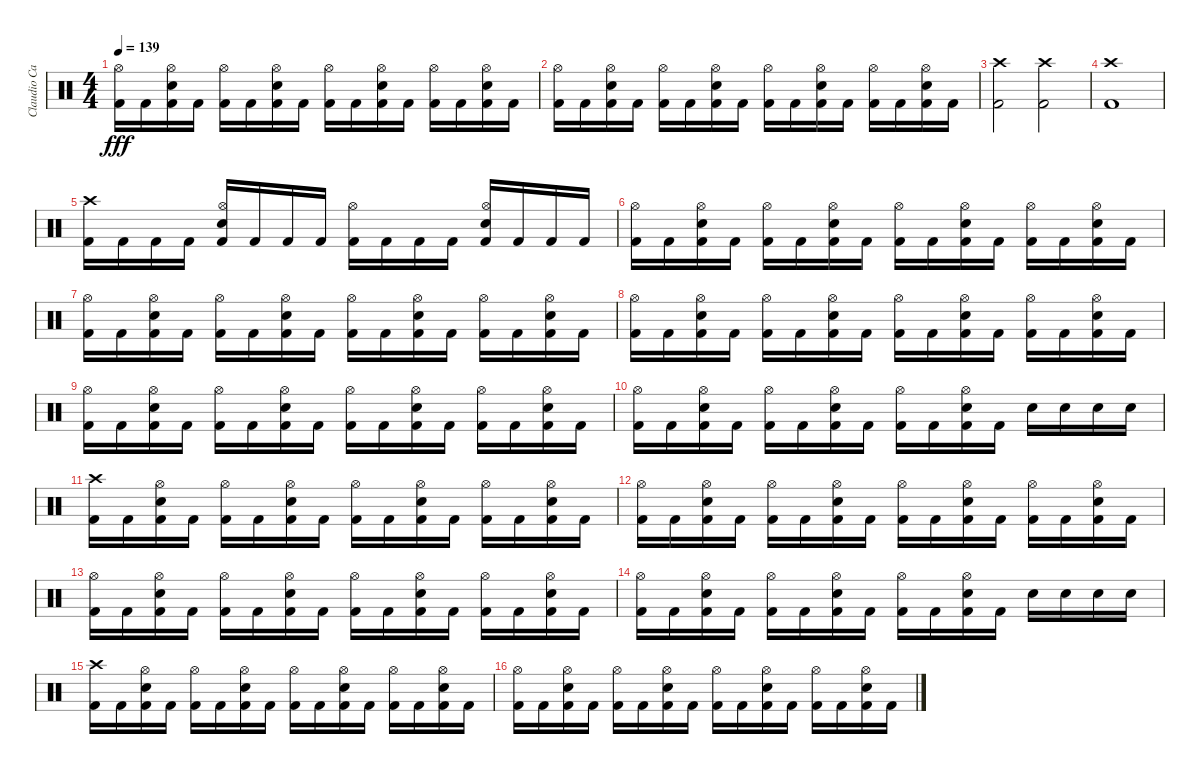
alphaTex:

\track ("Claudio Cardaci" "Claudio Ca") {instrument percussion}
\staff {score}
\articulation defaults
\ts (4 4)
\tempo 139
\clef neutral
\ks c
("Kick (hit) 2" "Hi-Hat (open)").16{dy fff} "Kick (hit) 2".16 ("Kick (hit) 2" "Electric Snare (hit)" "Hi-Hat (open)").16 "Kick (hit) 2".16 ("Kick (hit) 2" "Hi-Hat (open)").16 "Kick (hit) 2".16 ("Kick (hit) 2" "Electric Snare (hit)" "Hi-Hat (open)").16 "Kick (hit) 2".16 ("Kick (hit) 2" "Hi-Hat (open)").16 "Kick (hit) 2".16 ("Kick (hit) 2" "Electric Snare (hit)" "Hi-Hat (open)").16 "Kick (hit) 2".16 ("Kick (hit) 2" "Hi-Hat (open)").16 "Kick (hit) 2".16 ("Kick (hit) 2" "Electric Snare (hit)" "Hi-Hat (open)").16 "Kick (hit) 2".16 |
("Kick (hit) 2" "Hi-Hat (open)").16 "Kick (hit) 2".16 ("Kick (hit) 2" "Electric Snare (hit)" "Hi-Hat (open)").16 "Kick (hit) 2".16 ("Kick (hit) 2" "Hi-Hat (open)").16 "Kick (hit) 2".16 ("Kick (hit) 2" "Electric Snare (hit)" "Hi-Hat (open)").16 "Kick (hit) 2".16 ("Kick (hit) 2" "Hi-Hat (open)").16 "Kick (hit) 2".16 ("Kick (hit) 2" "Electric Snare (hit)" "Hi-Hat (open)").16 "Kick (hit) 2".16 ("Kick (hit) 2" "Hi-Hat (open)").16 "Kick (hit) 2".16 ("Kick (hit) 2" "Electric Snare (hit)" "Hi-Hat (open)").16 "Kick (hit) 2".16 |
("Kick (hit) 2" "Crash high (hit)").2 ("Kick (hit) 2" "Crash high (hit)").2 |
("Kick (hit) 2" "Crash high (hit)").1 |
("Kick (hit) 2" "Crash high (hit)").16 "Kick (hit) 2".16 "Kick (hit) 2".16 "Kick (hit) 2".16 ("Kick (hit) 2" "Electric Snare (hit)" "Hi-Hat (open)").16 "Kick (hit) 2".16 "Kick (hit) 2".16 "Kick (hit) 2".16 ("Kick (hit) 2" "Hi-Hat (open)").16 "Kick (hit) 2".16 "Kick (hit) 2".16 "Kick (hit) 2".16 ("Kick (hit) 2" "Electric Snare (hit)" "Hi-Hat (open)").16 "Kick (hit) 2".16 "Kick (hit) 2".16 "Kick (hit) 2".16 |
("Kick (hit) 2" "Hi-Hat (open)").16 "Kick (hit) 2".16 ("Kick (hit) 2" "Electric Snare (hit)" "Hi-Hat (open)").16 "Kick (hit) 2".16 ("Kick (hit) 2" "Hi-Hat (open)").16 "Kick (hit) 2".16 ("Kick (hit) 2" "Electric Snare (hit)" "Hi-Hat (open)").16 "Kick (hit) 2".16 ("Kick (hit) 2" "Hi-Hat (open)").16 "Kick (hit) 2".16 ("Kick (hit) 2" "Electric Snare (hit)" "Hi-Hat (open)").16 "Kick (hit) 2".16 ("Kick (hit) 2" "Hi-Hat (open)").16 "Kick (hit) 2".16 ("Kick (hit) 2" "Electric Snare (hit)" "Hi-Hat (open)").16 "Kick (hit) 2".16 |
("Kick (hit) 2" "Hi-Hat (open)").16 "Kick (hit) 2".16 ("Kick (hit) 2" "Electric Snare (hit)" "Hi-Hat (open)").16 "Kick (hit) 2".16 ("Kick (hit) 2" "Hi-Hat (open)").16 "Kick (hit) 2".16 ("Kick (hit) 2" "Electric Snare (hit)" "Hi-Hat (open)").16 "Kick (hit) 2".16 ("Kick (hit) 2" "Hi-Hat (open)").16 "Kick (hit) 2".16 ("Kick (hit) 2" "Electric Snare (hit)" "Hi-Hat (open)").16 "Kick (hit) 2".16 ("Kick (hit) 2" "Hi-Hat (open)").16 "Kick (hit) 2".16 ("Kick (hit) 2" "Electric Snare (hit)" "Hi-Hat (open)").16 "Kick (hit) 2".16 |
("Kick (hit) 2" "Hi-Hat (open)").16 "Kick (hit) 2".16 ("Kick (hit) 2" "Electric Snare (hit)" "Hi-Hat (open)").16 "Kick (hit) 2".16 ("Kick (hit) 2" "Hi-Hat (open)").16 "Kick (hit) 2".16 ("Kick (hit) 2" "Electric Snare (hit)" "Hi-Hat (open)").16 "Kick (hit) 2".16 ("Kick (hit) 2" "Hi-Hat (open)").16 "Kick (hit) 2".16 ("Kick (hit) 2" "Electric Snare (hit)" "Hi-Hat (open)").16 "Kick (hit) 2".16 ("Kick (hit) 2" "Hi-Hat (open)").16 "Kick (hit) 2".16 ("Kick (hit) 2" "Electric Snare (hit)" "Hi-Hat (open)").16 "Kick (hit) 2".16 |
("Kick (hit) 2" "Hi-Hat (open)").16 "Kick (hit) 2".16 ("Kick (hit) 2" "Electric Snare (hit)" "Hi-Hat (open)").16 "Kick (hit) 2".16 ("Kick (hit) 2" "Hi-Hat (open)").16 "Kick (hit) 2".16 ("Kick (hit) 2" "Electric Snare (hit)" "Hi-Hat (open)").16 "Kick (hit) 2".16 ("Kick (hit) 2" "Hi-Hat (open)").16 "Kick (hit) 2".16 ("Kick (hit) 2" "Electric Snare (hit)" "Hi-Hat (open)").16 "Kick (hit) 2".16 ("Kick (hit) 2" "Hi-Hat (open)").16 "Kick (hit) 2".16 ("Kick (hit) 2" "Electric Snare (hit)" "Hi-Hat (open)").16 "Kick (hit) 2".16 |
("Kick (hit) 2" "Hi-Hat (open)").16 "Kick (hit) 2".16 ("Kick (hit) 2" "Electric Snare (hit)" "Hi-Hat (open)").16 "Kick (hit) 2".16 ("Kick (hit) 2" "Hi-Hat (open)").16 "Kick (hit) 2".16 ("Kick (hit) 2" "Electric Snare (hit)" "Hi-Hat (open)").16 "Kick (hit) 2".16 ("Kick (hit) 2" "Hi-Hat (open)").16 "Kick (hit) 2".16 ("Kick (hit) 2" "Electric Snare (hit)" "Hi-Hat (open)").16 "Kick (hit) 2".16 "Electric Snare (hit)".16 "Electric Snare (hit)".16 "Electric Snare (hit)".16 "Electric Snare (hit)".16 |
("Kick (hit) 2" "Crash high (hit)").16 "Kick (hit) 2".16 ("Kick (hit) 2" "Electric Snare (hit)" "Hi-Hat (open)").16 "Kick (hit) 2".16 ("Kick (hit) 2" "Hi-Hat (open)").16 "Kick (hit) 2".16 ("Kick (hit) 2" "Electric Snare (hit)" "Hi-Hat (open)").16 "Kick (hit) 2".16 ("Kick (hit) 2" "Hi-Hat (open)").16 "Kick (hit) 2".16 ("Kick (hit) 2" "Electric Snare (hit)" "Hi-Hat (open)").16 "Kick (hit) 2".16 ("Kick (hit) 2" "Hi-Hat (open)").16 "Kick (hit) 2".16 ("Kick (hit) 2" "Electric Snare (hit)" "Hi-Hat (open)").16 "Kick (hit) 2".16 |
("Kick (hit) 2" "Hi-Hat (open)").16 "Kick (hit) 2".16 ("Kick (hit) 2" "Electric Snare (hit)" "Hi-Hat (open)").16 "Kick (hit) 2".16 ("Kick (hit) 2" "Hi-Hat (open)").16 "Kick (hit) 2".16 ("Kick (hit) 2" "Electric Snare (hit)" "Hi-Hat (open)").16 "Kick (hit) 2".16 ("Kick (hit) 2" "Hi-Hat (open)").16 "Kick (hit) 2".16 ("Kick (hit) 2" "Electric Snare (hit)" "Hi-Hat (open)").16 "Kick (hit) 2".16 ("Kick (hit) 2" "Hi-Hat (open)").16 "Kick (hit) 2".16 ("Kick (hit) 2" "Electric Snare (hit)" "Hi-Hat (open)").16 "Kick (hit) 2".16 |
("Kick (hit) 2" "Hi-Hat (open)").16 "Kick (hit) 2".16 ("Kick (hit) 2" "Electric Snare (hit)" "Hi-Hat (open)").16 "Kick (hit) 2".16 ("Kick (hit) 2" "Hi-Hat (open)").16 "Kick (hit) 2".16 ("Kick (hit) 2" "Electric Snare (hit)" "Hi-Hat (open)").16 "Kick (hit) 2".16 ("Kick (hit) 2" "Hi-Hat (open)").16 "Kick (hit) 2".16 ("Kick (hit) 2" "Electric Snare (hit)" "Hi-Hat (open)").16 "Kick (hit) 2".16 ("Kick (hit) 2" "Hi-Hat (open)").16 "Kick (hit) 2".16 ("Kick (hit) 2" "Electric Snare (hit)" "Hi-Hat (open)").16 "Kick (hit) 2".16 |
("Kick (hit) 2" "Hi-Hat (open)").16 "Kick (hit) 2".16 ("Kick (hit) 2" "Electric Snare (hit)" "Hi-Hat (open)").16 "Kick (hit) 2".16 ("Kick (hit) 2" "Hi-Hat (open)").16 "Kick (hit) 2".16 ("Kick (hit) 2" "Electric Snare (hit)" "Hi-Hat (open)").16 "Kick (hit) 2".16 ("Kick (hit) 2" "Hi-Hat (open)").16 "Kick (hit) 2".16 ("Kick (hit) 2" "Electric Snare (hit)" "Hi-Hat (open)").16 "Kick (hit) 2".16 "Electric Snare (hit)".16 "Electric Snare (hit)".16 "Electric Snare (hit)".16 "Electric Snare (hit)".16 |
("Kick (hit) 2" "Crash high (hit)").16 "Kick (hit) 2".16 ("Kick (hit) 2" "Electric Snare (hit)" "Hi-Hat (open)").16 "Kick (hit) 2".16 ("Kick (hit) 2" "Hi-Hat (open)").16 "Kick (hit) 2".16 ("Kick (hit) 2" "Electric Snare (hit)" "Hi-Hat (open)").16 "Kick (hit) 2".16 ("Kick (hit) 2" "Hi-Hat (open)").16 "Kick (hit) 2".16 ("Kick (hit) 2" "Electric Snare (hit)" "Hi-Hat (open)").16 "Kick (hit) 2".16 ("Kick (hit) 2" "Hi-Hat (open)").16 "Kick (hit) 2".16 ("Kick (hit) 2" "Electric Snare (hit)" "Hi-Hat (open)").16 "Kick (hit) 2".16 |
("Kick (hit) 2" "Hi-Hat (open)").16 "Kick (hit) 2".16 ("Kick (hit) 2" "Electric Snare (hit)" "Hi-Hat (open)").16 "Kick (hit) 2".16 ("Kick (hit) 2" "Hi-Hat (open)").16 "Kick (hit) 2".16 ("Kick (hit) 2" "Electric Snare (hit)" "Hi-Hat (open)").16 "Kick (hit) 2".16 ("Kick (hit) 2" "Hi-Hat (open)").16 "Kick (hit) 2".16 ("Kick (hit) 2" "Electric Snare (hit)" "Hi-Hat (open)").16 "Kick (hit) 2".16 ("Kick (hit) 2" "Hi-Hat (open)").16 "Kick (hit) 2".16 ("Kick (hit) 2" "Electric Snare (hit)" "Hi-Hat (open)").16 "Kick (hit) 2".16
